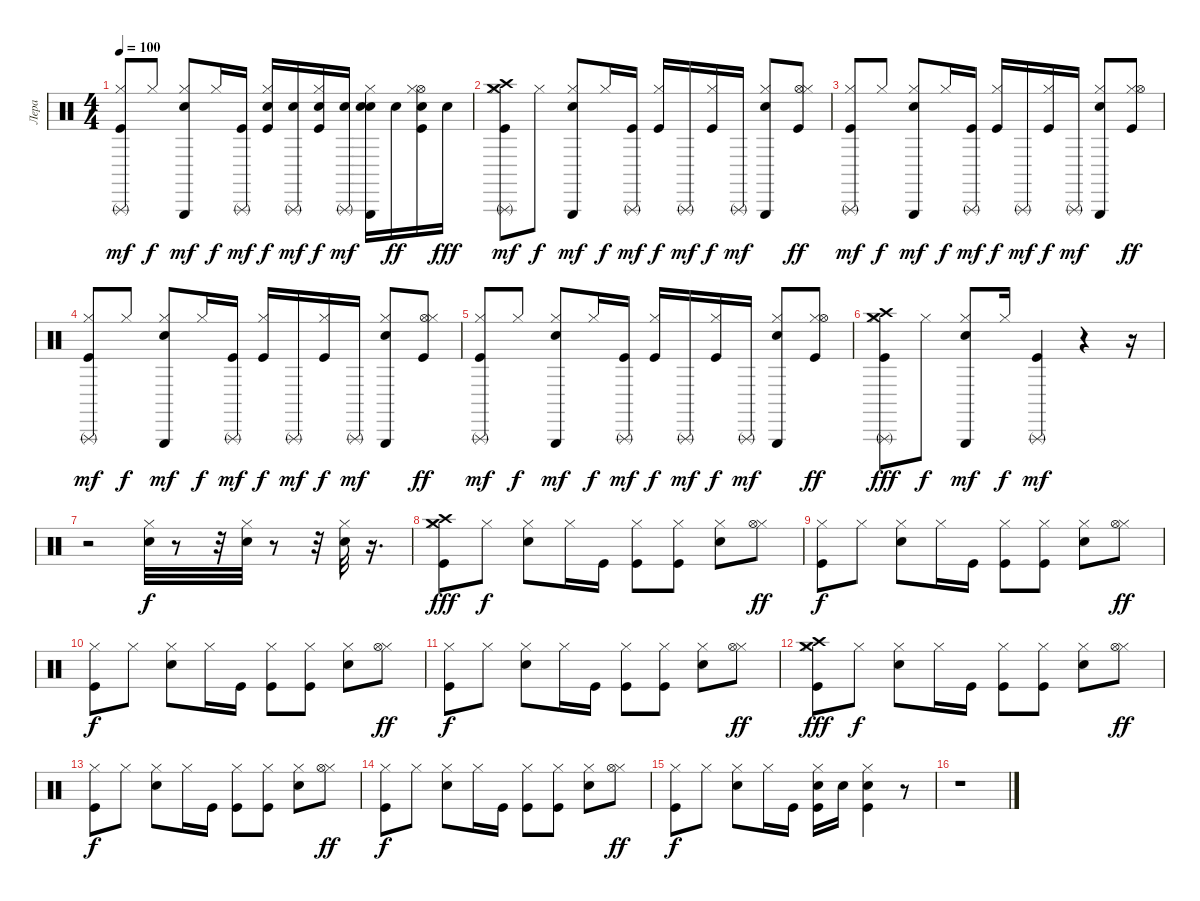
\track ("Лера" "Лера") {instrument percussion}
\staff {score}
\articulation defaults
\ts (4 4)
\tempo 100
\clef neutral
\ks c
("Hi-Hat (closed)" "Kick (hit)" "Triangle (rnute)").8{dy mf} "Hi-Hat (closed)".8{dy f} ("Hi-Hat (closed)" "Electric Snare (hit)" "Triangle (hit)").8{dy mf} "Hi-Hat (closed)".16{dy f} ("Kick (hit)" "Triangle (rnute)").16{dy mf} ("Kick (hit)" "Snare (hit) 2" "Hi-Hat (closed)").16{dy f} ("Triangle (rnute)" "Snare (hit) 2").16{dy mf} ("Snare (hit) 2" "Hi-Hat (closed)" "Kick (hit)").16{dy f} ("Triangle (rnute)" "Snare (hit) 2").16{dy mf} ("Snare (hit) 2" "Electric Snare (hit)" "Hi-Hat (closed)" "Triangle (hit)").16 "Snare (hit) 2".16{dy ff} ("Kick (hit)" "Hi-Hat (open)" "Hi-Hat (closed)" "Snare (hit) 2").16 "Snare (hit) 2".16{dy fff} |
("Hi-Hat (closed)" "Crash medium (hit)" "Crash high (hit)" "Kick (hit)" "Triangle (rnute)").8{dy mf} "Hi-Hat (closed)".8{dy f} ("Hi-Hat (closed)" "Triangle (hit)" "Electric Snare (hit)").8{dy mf} "Hi-Hat (closed)".16{dy f} ("Kick (hit)" "Triangle (rnute)").16{dy mf} ("Kick (hit)" "Hi-Hat (closed)").16{dy f} "Triangle (rnute)".16{dy mf} ("Kick (hit)" "Hi-Hat (closed)").16{dy f} "Triangle (rnute)".16{dy mf} ("Hi-Hat (closed)" "Electric Snare (hit)" "Triangle (hit)").8 ("Hi-Hat (open)" "Hi-Hat (closed)" "Kick (hit)").8{dy ff} |
("Kick (hit)" "Hi-Hat (closed)" "Triangle (rnute)").8{dy mf} "Hi-Hat (closed)".8{dy f} ("Hi-Hat (closed)" "Triangle (hit)" "Electric Snare (hit)").8{dy mf} "Hi-Hat (closed)".16{dy f} ("Triangle (rnute)" "Kick (hit)").16{dy mf} ("Hi-Hat (closed)" "Kick (hit)").16{dy f} "Triangle (rnute)".16{dy mf} ("Hi-Hat (closed)" "Kick (hit)").16{dy f} "Triangle (rnute)".16{dy mf} ("Hi-Hat (closed)" "Electric Snare (hit)" "Triangle (hit)").8 ("Kick (hit)" "Hi-Hat (closed)" "Hi-Hat (open)").8{dy ff} |
("Hi-Hat (closed)" "Kick (hit)" "Triangle (rnute)").8{dy mf} "Hi-Hat (closed)".8{dy f} ("Electric Snare (hit)" "Triangle (hit)" "Hi-Hat (closed)").8{dy mf} "Hi-Hat (closed)".16{dy f} ("Triangle (rnute)" "Kick (hit)").16{dy mf} ("Hi-Hat (closed)" "Kick (hit)").16{dy f} "Triangle (rnute)".16{dy mf} ("Hi-Hat (closed)" "Kick (hit)").16{dy f} "Triangle (rnute)".16{dy mf} ("Hi-Hat (closed)" "Electric Snare (hit)" "Triangle (hit)").8 ("Kick (hit)" "Hi-Hat (open)" "Hi-Hat (closed)").8{dy ff} |
("Kick (hit)" "Triangle (rnute)" "Hi-Hat (closed)").8{dy mf} "Hi-Hat (closed)".8{dy f} ("Electric Snare (hit)" "Hi-Hat (closed)" "Triangle (hit)").8{dy mf} "Hi-Hat (closed)".16{dy f} ("Kick (hit)" "Triangle (rnute)").16{dy mf} ("Kick (hit)" "Hi-Hat (closed)").16{dy f} "Triangle (rnute)".16{dy mf} ("Kick (hit)" "Hi-Hat (closed)").16{dy f} "Triangle (rnute)".16{dy mf} ("Hi-Hat (closed)" "Electric Snare (hit)" "Triangle (hit)").8 ("Hi-Hat (closed)" "Kick (hit)" "Hi-Hat (open)").8{dy ff} |
("Triangle (rnute)" "Crash high (hit)" "Kick (hit)" "Crash medium (hit)" "Hi-Hat (closed)").8{dy fff} "Hi-Hat (closed)".8{dy f} ("Triangle (hit)" "Electric Snare (hit)" "Hi-Hat (closed)").8{dy mf} "Hi-Hat (closed)".16{dy f} ("Kick (hit)" "Triangle (rnute)").4{dy mf} r.4 r.16 |
r.2 ("Hi-Hat (closed)" "Electric Snare (hit)").32{dy f} r.8 r.32 ("Hi-Hat (closed)" "Electric Snare (hit)").32 r.8 r.32 ("Hi-Hat (closed)" "Electric Snare (hit)").32 r.16{d} |
("Kick (hit)" "Crash medium (hit)" "Crash high (hit)" "Hi-Hat (closed)").8{dy fff} "Hi-Hat (closed)".8{dy f} ("Electric Snare (hit)" "Hi-Hat (closed)").8 "Hi-Hat (closed)".16 "Kick (hit)".16 ("Hi-Hat (closed)" "Kick (hit)").8 ("Kick (hit)" "Hi-Hat (closed)").8 ("Electric Snare (hit)" "Hi-Hat (closed)").8 ("Hi-Hat (closed)" "Hi-Hat (open)").8{dy ff} |
("Kick (hit)" "Hi-Hat (closed)").8{dy f} "Hi-Hat (closed)".8 ("Electric Snare (hit)" "Hi-Hat (closed)").8 "Hi-Hat (closed)".16 "Kick (hit)".16 ("Hi-Hat (closed)" "Kick (hit)").8 ("Kick (hit)" "Hi-Hat (closed)").8 ("Electric Snare (hit)" "Hi-Hat (closed)").8 ("Hi-Hat (closed)" "Hi-Hat (open)").8{dy ff} |
("Kick (hit)" "Hi-Hat (closed)").8{dy f} "Hi-Hat (closed)".8 ("Electric Snare (hit)" "Hi-Hat (closed)").8 "Hi-Hat (closed)".16 "Kick (hit)".16 ("Hi-Hat (closed)" "Kick (hit)").8 ("Kick (hit)" "Hi-Hat (closed)").8 ("Electric Snare (hit)" "Hi-Hat (closed)").8 ("Hi-Hat (closed)" "Hi-Hat (open)").8{dy ff} |
("Kick (hit)" "Hi-Hat (closed)").8{dy f} "Hi-Hat (closed)".8 ("Electric Snare (hit)" "Hi-Hat (closed)").8 "Hi-Hat (closed)".16 "Kick (hit)".16 ("Hi-Hat (closed)" "Kick (hit)").8 ("Kick (hit)" "Hi-Hat (closed)").8 ("Electric Snare (hit)" "Hi-Hat (closed)").8 ("Hi-Hat (closed)" "Hi-Hat (open)").8{dy ff} |
("Crash medium (hit)" "Crash high (hit)" "Kick (hit)" "Hi-Hat (closed)").8{dy fff} "Hi-Hat (closed)".8{dy f} ("Electric Snare (hit)" "Hi-Hat (closed)").8 "Hi-Hat (closed)".16 "Kick (hit)".16 ("Hi-Hat (closed)" "Kick (hit)").8 ("Kick (hit)" "Hi-Hat (closed)").8 ("Electric Snare (hit)" "Hi-Hat (closed)").8 ("Hi-Hat (closed)" "Hi-Hat (open)").8{dy ff} |
("Kick (hit)" "Hi-Hat (closed)").8{dy f} "Hi-Hat (closed)".8 ("Electric Snare (hit)" "Hi-Hat (closed)").8 "Hi-Hat (closed)".16 "Kick (hit)".16 ("Hi-Hat (closed)" "Kick (hit)").8 ("Kick (hit)" "Hi-Hat (closed)").8 ("Electric Snare (hit)" "Hi-Hat (closed)").8 ("Hi-Hat (closed)" "Hi-Hat (open)").8{dy ff} |
("Kick (hit)" "Hi-Hat (closed)").8{dy f} "Hi-Hat (closed)".8 ("Electric Snare (hit)" "Hi-Hat (closed)").8 "Hi-Hat (closed)".16 "Kick (hit)".16 ("Hi-Hat (closed)" "Kick (hit)").8 ("Kick (hit)" "Hi-Hat (closed)").8 ("Electric Snare (hit)" "Hi-Hat (closed)").8 ("Hi-Hat (closed)" "Hi-Hat (open)").8{dy ff} |
("Kick (hit)" "Hi-Hat (closed)").8{dy f} "Hi-Hat (closed)".8 ("Electric Snare (hit)" "Hi-Hat (closed)").8 "Hi-Hat (closed)".16 "Kick (hit)".16 ("Snare (hit) 2" "Hi-Hat (closed)" "Kick (hit)").16 "Snare (hit) 2".16 ("Snare (hit) 2" "Kick (hit)" "Hi-Hat (closed)").4 r.8 |
r.1
